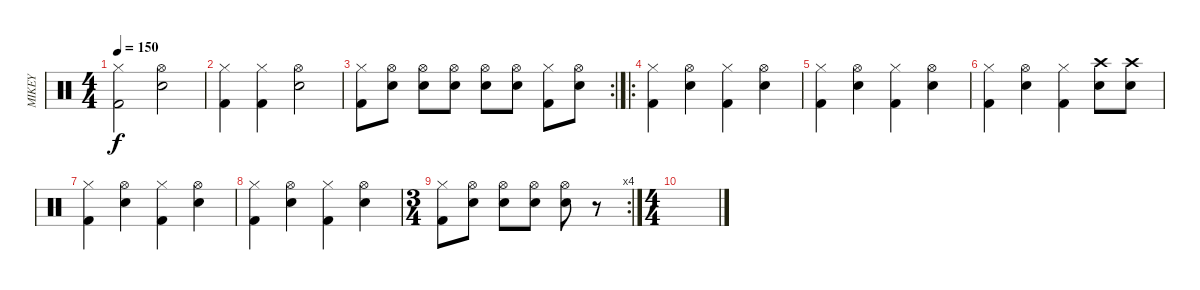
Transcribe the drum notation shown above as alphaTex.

\track ("MIKEY" "MIKEY") {instrument percussion}
\staff {score}
\articulation defaults
\ts (4 4)
\tempo 150
\clef neutral
\ks c
("Hi-Hat (closed)" "Kick (hit) 2").2{dy f} ("Hi-Hat (open)" "Electric Snare (hit)").2 |
("Hi-Hat (closed)" "Kick (hit) 2").4 ("Hi-Hat (closed)" "Kick (hit) 2").4 ("Hi-Hat (open)" "Electric Snare (hit)").2 |
\rc 2
("Hi-Hat (closed)" "Kick (hit) 2").8 ("Hi-Hat (open)" "Electric Snare (hit)").8 ("Hi-Hat (open)" "Electric Snare (hit)").8 ("Hi-Hat (open)" "Electric Snare (hit)").8 ("Hi-Hat (open)" "Electric Snare (hit)").8 ("Hi-Hat (open)" "Electric Snare (hit)").8 ("Hi-Hat (closed)" "Kick (hit) 2").8 ("Hi-Hat (open)" "Electric Snare (hit)").8 |
\ro
("Hi-Hat (closed)" "Kick (hit) 2").4 ("Hi-Hat (open)" "Snare (hit) 2").4 ("Hi-Hat (closed)" "Kick (hit) 2").4 ("Hi-Hat (open)" "Snare (hit) 2").4 |
("Hi-Hat (closed)" "Kick (hit) 2").4 ("Hi-Hat (open)" "Snare (hit) 2").4 ("Hi-Hat (closed)" "Kick (hit) 2").4 ("Hi-Hat (open)" "Snare (hit) 2").4 |
("Hi-Hat (closed)" "Kick (hit) 2").4 ("Hi-Hat (open)" "Snare (hit) 2").4 ("Hi-Hat (closed)" "Kick (hit) 2").4 ("Crash high (hit)" "Snare (hit) 2").8 ("Crash high (hit)" "Snare (hit) 2").8 |
("Hi-Hat (closed)" "Kick (hit) 2").4 ("Hi-Hat (open)" "Snare (hit) 2").4 ("Hi-Hat (closed)" "Kick (hit) 2").4 ("Hi-Hat (open)" "Snare (hit) 2").4 |
("Hi-Hat (closed)" "Kick (hit) 2").4 ("Hi-Hat (open)" "Snare (hit) 2").4 ("Hi-Hat (closed)" "Kick (hit) 2").4 ("Hi-Hat (open)" "Snare (hit) 2").4 |
\rc 4
\ts (3 4)
("Hi-Hat (closed)" "Kick (hit) 2").8 ("Hi-Hat (open)" "Snare (hit) 2").8 ("Hi-Hat (open)" "Snare (hit) 2").8 ("Hi-Hat (open)" "Snare (hit) 2").8 ("Hi-Hat (open)" "Snare (hit) 2").8 r.8 |
\ts (4 4)
